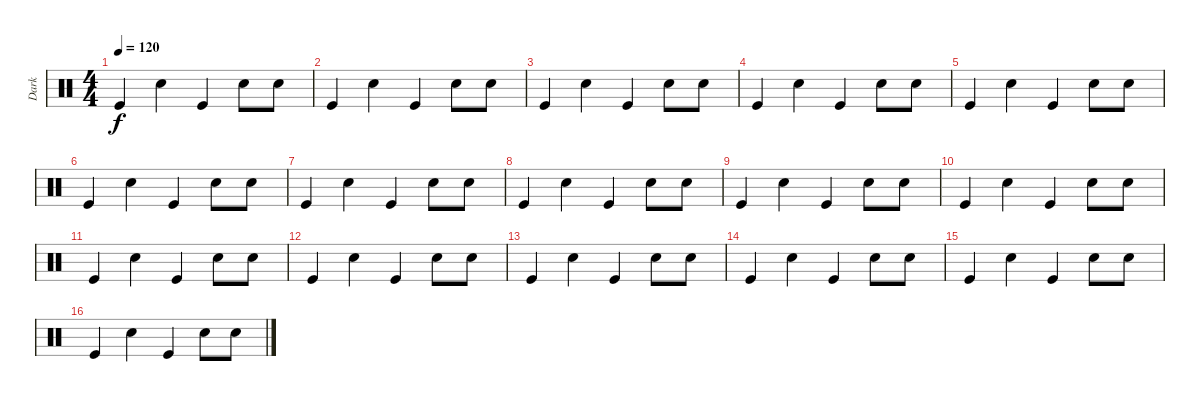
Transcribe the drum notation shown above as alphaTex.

\track ("Dark" "Dark") {instrument percussion}
\staff {score}
\articulation defaults
\ts (4 4)
\tempo 120
\clef neutral
\ks c "Kick (hit)".4{dy f} "Snare (hit) 2".4 "Kick (hit)".4 "Snare (hit) 2".8 "Snare (hit) 2".8
|
"Kick (hit)".4 "Snare (hit) 2".4 "Kick (hit)".4 "Snare (hit) 2".8 "Snare (hit) 2".8 |
"Kick (hit)".4 "Snare (hit) 2".4 "Kick (hit)".4 "Snare (hit) 2".8 "Snare (hit) 2".8 |
"Kick (hit)".4 "Snare (hit) 2".4 "Kick (hit)".4 "Snare (hit) 2".8 "Snare (hit) 2".8 |
"Kick (hit)".4 "Snare (hit) 2".4 "Kick (hit)".4 "Snare (hit) 2".8 "Snare (hit) 2".8 |
"Kick (hit)".4 "Snare (hit) 2".4 "Kick (hit)".4 "Snare (hit) 2".8 "Snare (hit) 2".8 |
"Kick (hit)".4 "Snare (hit) 2".4 "Kick (hit)".4 "Snare (hit) 2".8 "Snare (hit) 2".8 |
"Kick (hit)".4 "Snare (hit) 2".4 "Kick (hit)".4 "Snare (hit) 2".8 "Snare (hit) 2".8 |
"Kick (hit)".4 "Snare (hit) 2".4 "Kick (hit)".4 "Snare (hit) 2".8 "Snare (hit) 2".8 |
"Kick (hit)".4 "Snare (hit) 2".4 "Kick (hit)".4 "Snare (hit) 2".8 "Snare (hit) 2".8 |
"Kick (hit)".4 "Snare (hit) 2".4 "Kick (hit)".4 "Snare (hit) 2".8 "Snare (hit) 2".8 |
"Kick (hit)".4 "Snare (hit) 2".4 "Kick (hit)".4 "Snare (hit) 2".8 "Snare (hit) 2".8 |
"Kick (hit)".4 "Snare (hit) 2".4 "Kick (hit)".4 "Snare (hit) 2".8 "Snare (hit) 2".8 |
"Kick (hit)".4 "Snare (hit) 2".4 "Kick (hit)".4 "Snare (hit) 2".8 "Snare (hit) 2".8 |
"Kick (hit)".4 "Snare (hit) 2".4 "Kick (hit)".4 "Snare (hit) 2".8 "Snare (hit) 2".8 |
"Kick (hit)".4 "Snare (hit) 2".4 "Kick (hit)".4 "Snare (hit) 2".8 "Snare (hit) 2".8
